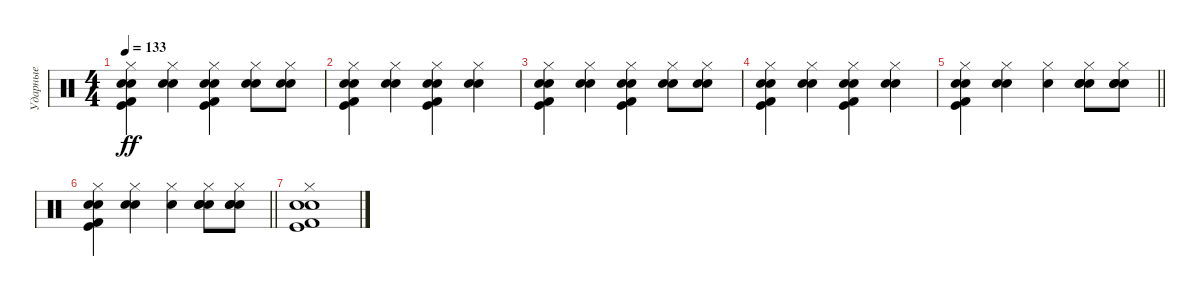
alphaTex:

\track ("Ударные" "Ударные") {instrument percussion}
\staff {score}
\articulation defaults
\ts (4 4)
\tempo 133
\clef neutral
\ks c
("Snare (hit) 2" "Kick (hit)" "Kick (hit) 2" "Snare (hit) 2" "Hi-Hat (closed)").4{dy ff} ("Electric Snare (hit)" "Electric Snare (hit)" "Hi-Hat (closed)").4 ("Snare (hit) 2" "Kick (hit)" "Kick (hit) 2" "Snare (hit) 2" "Hi-Hat (closed)").4 ("Electric Snare (hit)" "Electric Snare (hit)" "Hi-Hat (closed)").8 ("Electric Snare (hit)" "Electric Snare (hit)" "Hi-Hat (closed)").8 |
("Snare (hit) 2" "Kick (hit)" "Kick (hit) 2" "Snare (hit) 2" "Hi-Hat (closed)").4 ("Electric Snare (hit)" "Electric Snare (hit)" "Hi-Hat (closed)").4 ("Snare (hit) 2" "Kick (hit)" "Kick (hit) 2" "Snare (hit) 2" "Hi-Hat (closed)").4 ("Electric Snare (hit)" "Electric Snare (hit)" "Hi-Hat (closed)").4 |
("Snare (hit) 2" "Kick (hit)" "Kick (hit) 2" "Snare (hit) 2" "Hi-Hat (closed)").4 ("Electric Snare (hit)" "Electric Snare (hit)" "Hi-Hat (closed)").4 ("Snare (hit) 2" "Kick (hit)" "Kick (hit) 2" "Snare (hit) 2" "Hi-Hat (closed)").4 ("Electric Snare (hit)" "Electric Snare (hit)" "Hi-Hat (closed)").8 ("Electric Snare (hit)" "Electric Snare (hit)" "Hi-Hat (closed)").8 |
("Snare (hit) 2" "Kick (hit)" "Kick (hit) 2" "Snare (hit) 2" "Hi-Hat (closed)").4 ("Electric Snare (hit)" "Electric Snare (hit)" "Hi-Hat (closed)").4 ("Snare (hit) 2" "Kick (hit)" "Kick (hit) 2" "Snare (hit) 2" "Hi-Hat (closed)").4 ("Electric Snare (hit)" "Electric Snare (hit)" "Hi-Hat (closed)").4 |
\barLineRight lightlight
("Snare (hit) 2" "Kick (hit)" "Kick (hit) 2" "Snare (hit) 2" "Hi-Hat (closed)").4 ("Electric Snare (hit)" "Electric Snare (hit)" "Hi-Hat (closed)").4 ("Electric Snare (hit)" "Hi-Hat (closed)").4 ("Snare (hit) 2" "Electric Snare (hit)" "Snare (hit) 2" "Hi-Hat (closed)").8 ("Snare (hit) 2" "Electric Snare (hit)" "Snare (hit) 2" "Hi-Hat (closed)").8 |
\barLineRight lightlight
("Snare (hit) 2" "Kick (hit)" "Kick (hit) 2" "Snare (hit) 2" "Hi-Hat (closed)").4 ("Electric Snare (hit)" "Electric Snare (hit)" "Hi-Hat (closed)").4 ("Electric Snare (hit)" "Hi-Hat (closed)").4 ("Snare (hit) 2" "Electric Snare (hit)" "Snare (hit) 2" "Hi-Hat (closed)").8 ("Snare (hit) 2" "Electric Snare (hit)" "Snare (hit) 2" "Hi-Hat (closed)").8 |
("Snare (hit) 2" "Kick (hit)" "Kick (hit) 2" "Snare (hit) 2" "Hi-Hat (closed)").1
